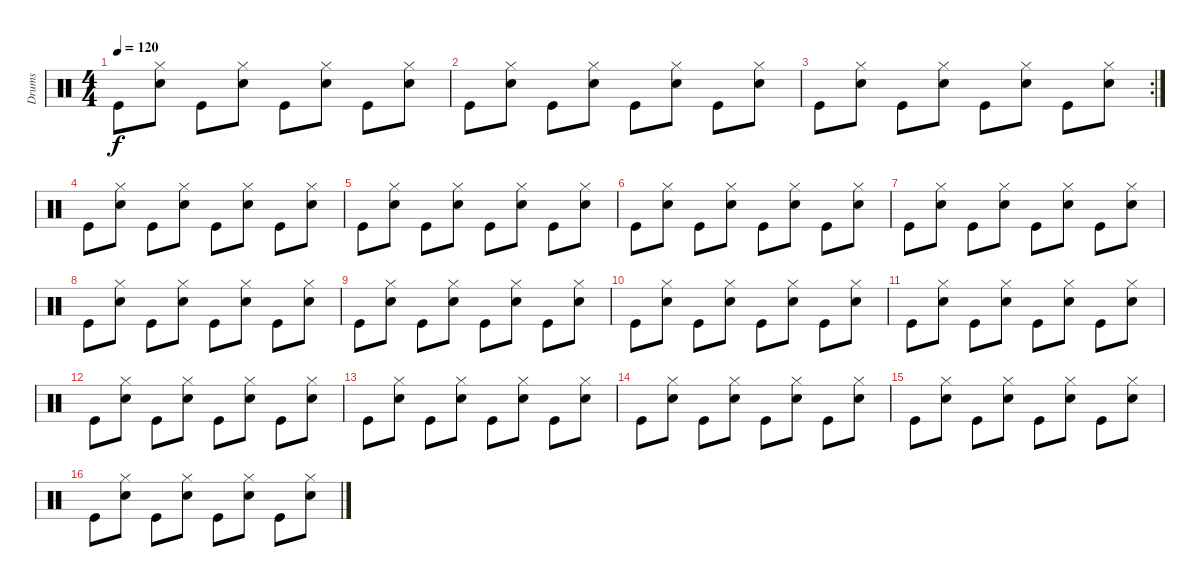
\track ("Drums" "Drums") {instrument percussion}
\staff {score}
\articulation defaults
\ts (4 4)
\tempo 120
\clef neutral
\ks c "Kick (hit)".8{dy f}
("Hi-Hat (closed)" "Snare (hit) 2").8 "Kick (hit)".8 ("Hi-Hat (closed)" "Snare (hit) 2").8 "Kick (hit)".8 ("Hi-Hat (closed)" "Snare (hit) 2").8 "Kick (hit)".8 ("Hi-Hat (closed)" "Snare (hit) 2").8 |
"Kick (hit)".8 ("Hi-Hat (closed)" "Snare (hit) 2").8 "Kick (hit)".8 ("Hi-Hat (closed)" "Snare (hit) 2").8 "Kick (hit)".8 ("Hi-Hat (closed)" "Snare (hit) 2").8 "Kick (hit)".8 ("Hi-Hat (closed)" "Snare (hit) 2").8 |
\rc 2 "Kick (hit)".8
("Hi-Hat (closed)" "Snare (hit) 2").8 "Kick (hit)".8 ("Hi-Hat (closed)" "Snare (hit) 2").8 "Kick (hit)".8 ("Hi-Hat (closed)" "Snare (hit) 2").8 "Kick (hit)".8 ("Hi-Hat (closed)" "Snare (hit) 2").8 |
"Kick (hit)".8 ("Hi-Hat (closed)" "Snare (hit) 2").8 "Kick (hit)".8 ("Hi-Hat (closed)" "Snare (hit) 2").8 "Kick (hit)".8 ("Hi-Hat (closed)" "Snare (hit) 2").8 "Kick (hit)".8 ("Hi-Hat (closed)" "Snare (hit) 2").8 |
"Kick (hit)".8 ("Hi-Hat (closed)" "Snare (hit) 2").8 "Kick (hit)".8 ("Hi-Hat (closed)" "Snare (hit) 2").8 "Kick (hit)".8 ("Hi-Hat (closed)" "Snare (hit) 2").8 "Kick (hit)".8 ("Hi-Hat (closed)" "Snare (hit) 2").8 |
"Kick (hit)".8 ("Hi-Hat (closed)" "Snare (hit) 2").8 "Kick (hit)".8 ("Hi-Hat (closed)" "Snare (hit) 2").8 "Kick (hit)".8 ("Hi-Hat (closed)" "Snare (hit) 2").8 "Kick (hit)".8 ("Hi-Hat (closed)" "Snare (hit) 2").8 |
"Kick (hit)".8 ("Hi-Hat (closed)" "Snare (hit) 2").8 "Kick (hit)".8 ("Hi-Hat (closed)" "Snare (hit) 2").8 "Kick (hit)".8 ("Hi-Hat (closed)" "Snare (hit) 2").8 "Kick (hit)".8 ("Hi-Hat (closed)" "Snare (hit) 2").8 |
"Kick (hit)".8 ("Hi-Hat (closed)" "Snare (hit) 2").8 "Kick (hit)".8 ("Hi-Hat (closed)" "Snare (hit) 2").8 "Kick (hit)".8 ("Hi-Hat (closed)" "Snare (hit) 2").8 "Kick (hit)".8 ("Hi-Hat (closed)" "Snare (hit) 2").8 |
"Kick (hit)".8 ("Hi-Hat (closed)" "Snare (hit) 2").8 "Kick (hit)".8 ("Hi-Hat (closed)" "Snare (hit) 2").8 "Kick (hit)".8 ("Hi-Hat (closed)" "Snare (hit) 2").8 "Kick (hit)".8 ("Hi-Hat (closed)" "Snare (hit) 2").8 |
"Kick (hit)".8 ("Hi-Hat (closed)" "Snare (hit) 2").8 "Kick (hit)".8 ("Hi-Hat (closed)" "Snare (hit) 2").8 "Kick (hit)".8 ("Hi-Hat (closed)" "Snare (hit) 2").8 "Kick (hit)".8 ("Hi-Hat (closed)" "Snare (hit) 2").8 |
"Kick (hit)".8 ("Hi-Hat (closed)" "Snare (hit) 2").8 "Kick (hit)".8 ("Hi-Hat (closed)" "Snare (hit) 2").8 "Kick (hit)".8 ("Hi-Hat (closed)" "Snare (hit) 2").8 "Kick (hit)".8 ("Hi-Hat (closed)" "Snare (hit) 2").8 |
"Kick (hit)".8 ("Hi-Hat (closed)" "Snare (hit) 2").8 "Kick (hit)".8 ("Hi-Hat (closed)" "Snare (hit) 2").8 "Kick (hit)".8 ("Hi-Hat (closed)" "Snare (hit) 2").8 "Kick (hit)".8 ("Hi-Hat (closed)" "Snare (hit) 2").8 |
"Kick (hit)".8 ("Hi-Hat (closed)" "Snare (hit) 2").8 "Kick (hit)".8 ("Hi-Hat (closed)" "Snare (hit) 2").8 "Kick (hit)".8 ("Hi-Hat (closed)" "Snare (hit) 2").8 "Kick (hit)".8 ("Hi-Hat (closed)" "Snare (hit) 2").8 |
"Kick (hit)".8 ("Hi-Hat (closed)" "Snare (hit) 2").8 "Kick (hit)".8 ("Hi-Hat (closed)" "Snare (hit) 2").8 "Kick (hit)".8 ("Hi-Hat (closed)" "Snare (hit) 2").8 "Kick (hit)".8 ("Hi-Hat (closed)" "Snare (hit) 2").8 |
"Kick (hit)".8 ("Hi-Hat (closed)" "Snare (hit) 2").8 "Kick (hit)".8 ("Hi-Hat (closed)" "Snare (hit) 2").8 "Kick (hit)".8 ("Hi-Hat (closed)" "Snare (hit) 2").8 "Kick (hit)".8 ("Hi-Hat (closed)" "Snare (hit) 2").8 |
"Kick (hit)".8 ("Hi-Hat (closed)" "Snare (hit) 2").8 "Kick (hit)".8 ("Hi-Hat (closed)" "Snare (hit) 2").8 "Kick (hit)".8 ("Hi-Hat (closed)" "Snare (hit) 2").8 "Kick (hit)".8 ("Hi-Hat (closed)" "Snare (hit) 2").8
